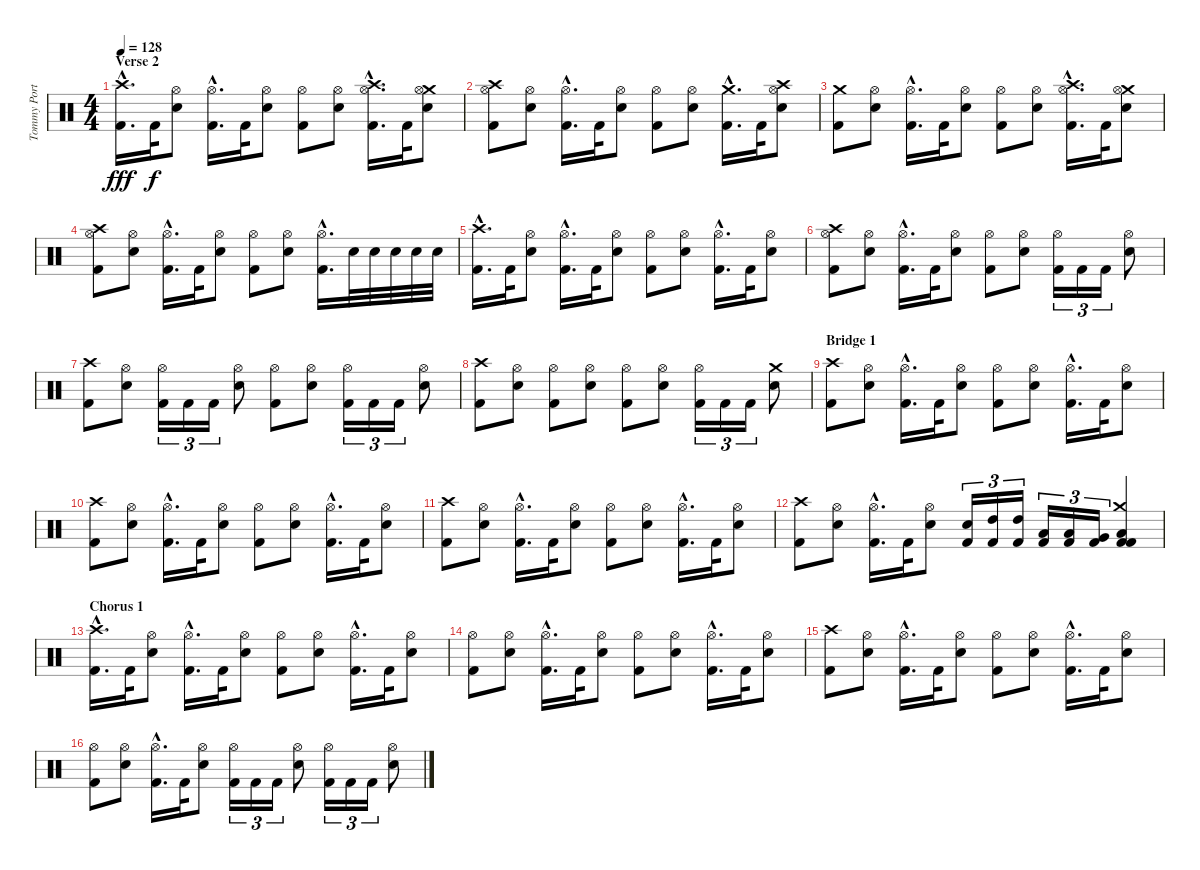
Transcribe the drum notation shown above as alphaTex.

\track ("Tommy Portimo" "Tommy Port") {instrument percussion}
\staff {score}
\articulation defaults
\ts (4 4)
\section ("" "Verse 2")
\tempo 128
\clef neutral
\ks c
("Crash high (hit)"{hac} "Kick (hit) 2"{hac}).16{d dy fff} "Kick (hit) 2".32{dy f} ("Hi-Hat (open)" "Snare (hit) 2").8 ("Hi-Hat (open)"{hac} "Kick (hit) 2"{hac}).16{d} "Kick (hit) 2".32 ("Hi-Hat (open)" "Snare (hit) 2").8 ("Hi-Hat (open)" "Kick (hit) 2").8 ("Hi-Hat (open)" "Snare (hit) 2").8 ("Crash high (hit)"{hac} "Hi-Hat (open)"{hac} "Kick (hit) 2"{hac}).16{d} "Kick (hit) 2".32 ("Crash medium (hit)" "Hi-Hat (open)" "Snare (hit) 2").8 |
("Crash high (hit)" "Hi-Hat (open)" "Kick (hit) 2").8 ("Hi-Hat (open)" "Snare (hit) 2").8 ("Hi-Hat (open)"{hac} "Kick (hit) 2"{hac}).16{d} "Kick (hit) 2".32 ("Hi-Hat (open)" "Snare (hit) 2").8 ("Hi-Hat (open)" "Kick (hit) 2").8 ("Hi-Hat (open)" "Snare (hit) 2").8 ("Crash medium (hit)"{hac} "Kick (hit) 2"{hac}).16{d} "Kick (hit) 2".32 ("Crash high (hit)" "Hi-Hat (open)" "Snare (hit) 2").8 |
("Crash medium (hit)" "Kick (hit) 2").8 ("Hi-Hat (open)" "Snare (hit) 2").8 ("Hi-Hat (open)"{hac} "Kick (hit) 2"{hac}).16{d} "Kick (hit) 2".32 ("Hi-Hat (open)" "Snare (hit) 2").8 ("Hi-Hat (open)" "Kick (hit) 2").8 ("Hi-Hat (open)" "Snare (hit) 2").8 ("Crash high (hit)"{hac} "Hi-Hat (open)"{hac} "Kick (hit) 2"{hac}).16{d} "Kick (hit) 2".32 ("Crash medium (hit)" "Hi-Hat (open)" "Snare (hit) 2").8 |
("Crash high (hit)" "Hi-Hat (open)" "Kick (hit) 2").8 ("Hi-Hat (open)" "Snare (hit) 2").8 ("Hi-Hat (open)"{hac} "Kick (hit) 2"{hac}).16{d} "Kick (hit) 2".32 ("Hi-Hat (open)" "Snare (hit) 2").8 ("Hi-Hat (open)" "Kick (hit) 2").8 ("Hi-Hat (open)" "Snare (hit) 2").8 ("Hi-Hat (open)"{hac} "Kick (hit) 2"{hac}).16{d} "Snare (hit) 2".32 "Snare (hit) 2".32 "Snare (hit) 2".32 "Snare (hit) 2".32 "Snare (hit) 2".32 |
("Crash high (hit)"{hac} "Kick (hit) 2"{hac}).16{d} "Kick (hit) 2".32 ("Hi-Hat (open)" "Snare (hit) 2").8 ("Hi-Hat (open)"{hac} "Kick (hit) 2"{hac}).16{d} "Kick (hit) 2".32 ("Hi-Hat (open)" "Snare (hit) 2").8 ("Hi-Hat (open)" "Kick (hit) 2").8 ("Hi-Hat (open)" "Snare (hit) 2").8 ("Hi-Hat (open)"{hac} "Kick (hit) 2"{hac}).16{d} "Kick (hit) 2".32 ("Hi-Hat (open)" "Snare (hit) 2").8 |
("Crash high (hit)" "Hi-Hat (open)" "Kick (hit) 2").8 ("Hi-Hat (open)" "Snare (hit) 2").8 ("Hi-Hat (open)"{hac} "Kick (hit) 2"{hac}).16{d} "Kick (hit) 2".32 ("Hi-Hat (open)" "Snare (hit) 2").8 ("Hi-Hat (open)" "Kick (hit) 2").8 ("Hi-Hat (open)" "Snare (hit) 2").8 ("Hi-Hat (open)" "Kick (hit) 2").16{tu (3 2)} "Kick (hit) 2".16{tu (3 2)} "Kick (hit) 2".16{tu (3 2)} ("Hi-Hat (open)" "Snare (hit) 2").8 |
("Crash high (hit)" "Kick (hit) 2").8 ("Hi-Hat (open)" "Snare (hit) 2").8 ("Hi-Hat (open)" "Kick (hit) 2").16{tu (3 2)} "Kick (hit) 2".16{tu (3 2)} "Kick (hit) 2".16{tu (3 2)} ("Hi-Hat (open)" "Snare (hit) 2").8 ("Hi-Hat (open)" "Kick (hit) 2").8 ("Hi-Hat (open)" "Snare (hit) 2").8 ("Hi-Hat (open)" "Kick (hit) 2").16{tu (3 2)} "Kick (hit) 2".16{tu (3 2)} "Kick (hit) 2".16{tu (3 2)} ("Hi-Hat (open)" "Snare (hit) 2").8 |
("Crash high (hit)" "Kick (hit) 2").8 ("Hi-Hat (open)" "Snare (hit) 2").8 ("Hi-Hat (open)" "Kick (hit) 2").8 ("Hi-Hat (open)" "Snare (hit) 2").8 ("Hi-Hat (open)" "Kick (hit) 2").8 ("Hi-Hat (open)" "Snare (hit) 2").8 ("Hi-Hat (open)" "Kick (hit) 2").16{tu (3 2)} "Kick (hit) 2".16{tu (3 2)} "Kick (hit) 2".16{tu (3 2)} ("Crash medium (hit)" "Snare (hit) 2").8 |
\section ("" "Bridge 1")
("Crash high (hit)" "Kick (hit) 2").8 ("Hi-Hat (open)" "Snare (hit) 2").8 ("Hi-Hat (open)"{hac} "Kick (hit) 2"{hac}).16{d} "Kick (hit) 2".32 ("Hi-Hat (open)" "Snare (hit) 2").8 ("Hi-Hat (open)" "Kick (hit) 2").8 ("Hi-Hat (open)" "Snare (hit) 2").8 ("Hi-Hat (open)"{hac} "Kick (hit) 2"{hac}).16{d} "Kick (hit) 2".32 ("Hi-Hat (open)" "Snare (hit) 2").8 |
("Crash high (hit)" "Kick (hit) 2").8 ("Hi-Hat (open)" "Snare (hit) 2").8 ("Hi-Hat (open)"{hac} "Kick (hit) 2"{hac}).16{d} "Kick (hit) 2".32 ("Hi-Hat (open)" "Snare (hit) 2").8 ("Hi-Hat (open)" "Kick (hit) 2").8 ("Hi-Hat (open)" "Snare (hit) 2").8 ("Hi-Hat (open)"{hac} "Kick (hit) 2"{hac}).16{d} "Kick (hit) 2".32 ("Hi-Hat (open)" "Snare (hit) 2").8 |
("Crash high (hit)" "Kick (hit) 2").8 ("Hi-Hat (open)" "Snare (hit) 2").8 ("Hi-Hat (open)"{hac} "Kick (hit) 2"{hac}).16{d} "Kick (hit) 2".32 ("Hi-Hat (open)" "Snare (hit) 2").8 ("Hi-Hat (open)" "Kick (hit) 2").8 ("Hi-Hat (open)" "Snare (hit) 2").8 ("Hi-Hat (open)"{hac} "Kick (hit) 2"{hac}).16{d} "Kick (hit) 2".32 ("Hi-Hat (open)" "Snare (hit) 2").8 |
("Crash high (hit)" "Kick (hit) 2").8 ("Hi-Hat (open)" "Snare (hit) 2").8 ("Hi-Hat (open)"{hac} "Kick (hit) 2"{hac}).16{d} "Kick (hit) 2".32 ("Hi-Hat (open)" "Snare (hit) 2").8 ("Snare (hit) 2" "Kick (hit) 2").16{tu (3 2)} ("High Tom (hit)" "Kick (hit) 2").16{tu (3 2)} ("High Tom (hit)" "Kick (hit) 2").16{tu (3 2)} ("Low Tom (hit)" "Kick (hit) 2").16{tu (3 2)} ("Low Tom (hit)" "Kick (hit) 2").16{tu (3 2)} ("Very Low Tom (hit)" "Kick (hit) 2").16{tu (3 2)} ("Crash medium (hit)" "Low Floor Tom (hit)" "Kick (hit) 2" "Kick (hit) 2").4 |
\section ("" "Chorus 1")
("Crash high (hit)"{hac} "Kick (hit) 2"{hac}).16{d} "Kick (hit) 2".32 ("Hi-Hat (open)" "Snare (hit) 2").8 ("Hi-Hat (open)"{hac} "Kick (hit) 2"{hac}).16{d} "Kick (hit) 2".32 ("Hi-Hat (open)" "Snare (hit) 2").8 ("Hi-Hat (open)" "Kick (hit) 2").8 ("Hi-Hat (open)" "Snare (hit) 2").8 ("Hi-Hat (open)"{hac} "Kick (hit) 2"{hac}).16{d} "Kick (hit) 2".32 ("Hi-Hat (open)" "Snare (hit) 2").8 |
("Hi-Hat (open)" "Kick (hit) 2").8 ("Hi-Hat (open)" "Snare (hit) 2").8 ("Hi-Hat (open)"{hac} "Kick (hit) 2"{hac}).16{d} "Kick (hit) 2".32 ("Hi-Hat (open)" "Snare (hit) 2").8 ("Hi-Hat (open)" "Kick (hit) 2").8 ("Hi-Hat (open)" "Snare (hit) 2").8 ("Hi-Hat (open)"{hac} "Kick (hit) 2"{hac}).16{d} "Kick (hit) 2".32 ("Hi-Hat (open)" "Snare (hit) 2").8 |
("Crash high (hit)" "Kick (hit) 2").8 ("Hi-Hat (open)" "Snare (hit) 2").8 ("Hi-Hat (open)"{hac} "Kick (hit) 2"{hac}).16{d} "Kick (hit) 2".32 ("Hi-Hat (open)" "Snare (hit) 2").8 ("Hi-Hat (open)" "Kick (hit) 2").8 ("Hi-Hat (open)" "Snare (hit) 2").8 ("Hi-Hat (open)"{hac} "Kick (hit) 2"{hac}).16{d} "Kick (hit) 2".32 ("Hi-Hat (open)" "Snare (hit) 2").8 |
("Hi-Hat (open)" "Kick (hit) 2").8 ("Hi-Hat (open)" "Snare (hit) 2").8 ("Hi-Hat (open)"{hac} "Kick (hit) 2"{hac}).16{d} "Kick (hit) 2".32 ("Hi-Hat (open)" "Snare (hit) 2").8 ("Hi-Hat (open)" "Kick (hit) 2").16{tu (3 2)} "Kick (hit) 2".16{tu (3 2)} "Kick (hit) 2".16{tu (3 2)} ("Hi-Hat (open)" "Snare (hit) 2").8 ("Hi-Hat (open)" "Kick (hit) 2").16{tu (3 2)} "Kick (hit) 2".16{tu (3 2)} "Kick (hit) 2".16{tu (3 2)} ("Hi-Hat (open)" "Snare (hit) 2").8
